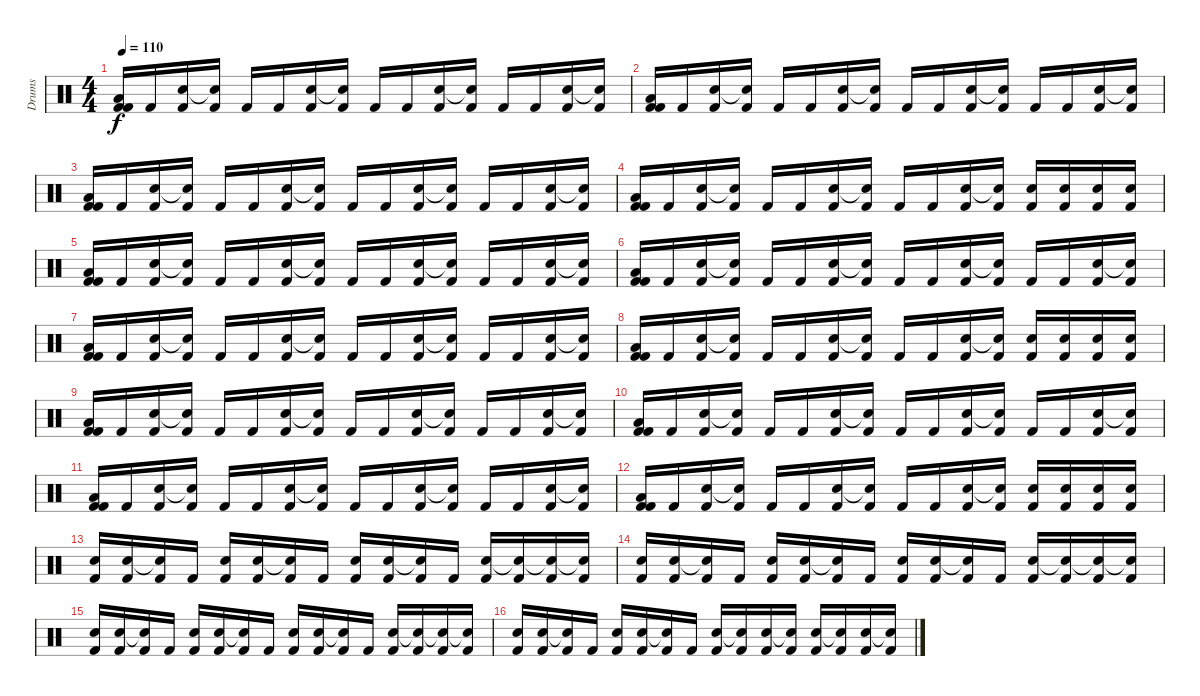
\track ("Drums" "Drums") {instrument percussion}
\staff {score}
\articulation defaults
\ts (4 4)
\tempo 110
\clef neutral
\ks c
("Kick (hit) 2" "Low Floor Tom (hit)" "Kick (hit) 2").16{dy f} "Kick (hit) 2".16 ("Kick (hit) 2" "Electric Snare (hit)").16 ("Kick (hit) 2" "Snare (hit)"{t}).16 "Kick (hit) 2".16 "Kick (hit) 2".16 ("Kick (hit) 2" "Electric Snare (hit)").16 ("Kick (hit) 2" "Snare (hit)"{t}).16 "Kick (hit) 2".16 "Kick (hit) 2".16 ("Kick (hit) 2" "Electric Snare (hit)").16 ("Kick (hit) 2" "Snare (hit)"{t}).16 "Kick (hit) 2".16 "Kick (hit) 2".16 ("Kick (hit) 2" "Electric Snare (hit)").16 ("Kick (hit) 2" "Snare (hit)"{t}).16 |
("Kick (hit) 2" "Low Floor Tom (hit)" "Kick (hit) 2").16 "Kick (hit) 2".16 ("Kick (hit) 2" "Electric Snare (hit)").16 ("Kick (hit) 2" "Snare (hit)"{t}).16 "Kick (hit) 2".16 "Kick (hit) 2".16 ("Kick (hit) 2" "Electric Snare (hit)").16 ("Kick (hit) 2" "Snare (hit)"{t}).16 "Kick (hit) 2".16 "Kick (hit) 2".16 ("Kick (hit) 2" "Electric Snare (hit)").16 ("Kick (hit) 2" "Snare (hit)"{t}).16 "Kick (hit) 2".16 "Kick (hit) 2".16 ("Kick (hit) 2" "Electric Snare (hit)").16 ("Kick (hit) 2" "Electric Snare (hit)"{t}).16 |
("Kick (hit) 2" "Low Floor Tom (hit)" "Kick (hit) 2").16 "Kick (hit) 2".16 ("Kick (hit) 2" "Electric Snare (hit)").16 ("Kick (hit) 2" "Snare (hit)"{t}).16 "Kick (hit) 2".16 "Kick (hit) 2".16 ("Kick (hit) 2" "Electric Snare (hit)").16 ("Kick (hit) 2" "Snare (hit)"{t}).16 "Kick (hit) 2".16 "Kick (hit) 2".16 ("Kick (hit) 2" "Electric Snare (hit)").16 ("Kick (hit) 2" "Snare (hit)"{t}).16 "Kick (hit) 2".16 "Kick (hit) 2".16 ("Kick (hit) 2" "Electric Snare (hit)").16 ("Kick (hit) 2" "Snare (hit)"{t}).16 |
("Kick (hit) 2" "Low Floor Tom (hit)" "Kick (hit) 2").16 "Kick (hit) 2".16 ("Kick (hit) 2" "Electric Snare (hit)").16 ("Kick (hit) 2" "Snare (hit)"{t}).16 "Kick (hit) 2".16 "Kick (hit) 2".16 ("Kick (hit) 2" "Electric Snare (hit)").16 ("Kick (hit) 2" "Snare (hit)"{t}).16 "Kick (hit) 2".16 "Kick (hit) 2".16 ("Kick (hit) 2" "Electric Snare (hit)").16 ("Kick (hit) 2" "Snare (hit)"{t}).16 ("Kick (hit) 2" "Electric Snare (hit)").16 ("Kick (hit) 2" "Electric Snare (hit)").16 ("Kick (hit) 2" "Electric Snare (hit)").16 ("Kick (hit) 2" "Electric Snare (hit)").16 |
("Kick (hit) 2" "Low Floor Tom (hit)" "Kick (hit) 2").16 "Kick (hit) 2".16 ("Kick (hit) 2" "Electric Snare (hit)").16 ("Kick (hit) 2" "Snare (hit)"{t}).16 "Kick (hit) 2".16 "Kick (hit) 2".16 ("Kick (hit) 2" "Electric Snare (hit)").16 ("Kick (hit) 2" "Snare (hit)"{t}).16 "Kick (hit) 2".16 "Kick (hit) 2".16 ("Kick (hit) 2" "Electric Snare (hit)").16 ("Kick (hit) 2" "Snare (hit)"{t}).16 "Kick (hit) 2".16 "Kick (hit) 2".16 ("Kick (hit) 2" "Electric Snare (hit)").16 ("Kick (hit) 2" "Snare (hit)"{t}).16 |
("Kick (hit) 2" "Low Floor Tom (hit)" "Kick (hit) 2").16 "Kick (hit) 2".16 ("Kick (hit) 2" "Electric Snare (hit)").16 ("Kick (hit) 2" "Snare (hit)"{t}).16 "Kick (hit) 2".16 "Kick (hit) 2".16 ("Kick (hit) 2" "Electric Snare (hit)").16 ("Kick (hit) 2" "Snare (hit)"{t}).16 "Kick (hit) 2".16 "Kick (hit) 2".16 ("Kick (hit) 2" "Electric Snare (hit)").16 ("Kick (hit) 2" "Snare (hit)"{t}).16 "Kick (hit) 2".16 "Kick (hit) 2".16 ("Kick (hit) 2" "Electric Snare (hit)").16 ("Kick (hit) 2" "Electric Snare (hit)"{t}).16 |
("Kick (hit) 2" "Low Floor Tom (hit)" "Kick (hit) 2").16 "Kick (hit) 2".16 ("Kick (hit) 2" "Electric Snare (hit)").16 ("Kick (hit) 2" "Snare (hit)"{t}).16 "Kick (hit) 2".16 "Kick (hit) 2".16 ("Kick (hit) 2" "Electric Snare (hit)").16 ("Kick (hit) 2" "Snare (hit)"{t}).16 "Kick (hit) 2".16 "Kick (hit) 2".16 ("Kick (hit) 2" "Electric Snare (hit)").16 ("Kick (hit) 2" "Snare (hit)"{t}).16 "Kick (hit) 2".16 "Kick (hit) 2".16 ("Kick (hit) 2" "Electric Snare (hit)").16 ("Kick (hit) 2" "Snare (hit)"{t}).16 |
("Kick (hit) 2" "Low Floor Tom (hit)" "Kick (hit) 2").16 "Kick (hit) 2".16 ("Kick (hit) 2" "Electric Snare (hit)").16 ("Kick (hit) 2" "Snare (hit)"{t}).16 "Kick (hit) 2".16 "Kick (hit) 2".16 ("Kick (hit) 2" "Electric Snare (hit)").16 ("Kick (hit) 2" "Snare (hit)"{t}).16 "Kick (hit) 2".16 "Kick (hit) 2".16 ("Kick (hit) 2" "Electric Snare (hit)").16 ("Kick (hit) 2" "Snare (hit)"{t}).16 ("Kick (hit) 2" "Electric Snare (hit)").16 ("Kick (hit) 2" "Electric Snare (hit)").16 ("Kick (hit) 2" "Electric Snare (hit)").16 ("Kick (hit) 2" "Electric Snare (hit)").16 |
("Kick (hit) 2" "Low Floor Tom (hit)" "Kick (hit) 2").16 "Kick (hit) 2".16 ("Kick (hit) 2" "Electric Snare (hit)").16 ("Kick (hit) 2" "Snare (hit)"{t}).16 "Kick (hit) 2".16 "Kick (hit) 2".16 ("Kick (hit) 2" "Electric Snare (hit)").16 ("Kick (hit) 2" "Snare (hit)"{t}).16 "Kick (hit) 2".16 "Kick (hit) 2".16 ("Kick (hit) 2" "Electric Snare (hit)").16 ("Kick (hit) 2" "Snare (hit)"{t}).16 "Kick (hit) 2".16 "Kick (hit) 2".16 ("Kick (hit) 2" "Electric Snare (hit)").16 ("Kick (hit) 2" "Snare (hit)"{t}).16 |
("Kick (hit) 2" "Low Floor Tom (hit)" "Kick (hit) 2").16 "Kick (hit) 2".16 ("Kick (hit) 2" "Electric Snare (hit)").16 ("Kick (hit) 2" "Snare (hit)"{t}).16 "Kick (hit) 2".16 "Kick (hit) 2".16 ("Kick (hit) 2" "Electric Snare (hit)").16 ("Kick (hit) 2" "Snare (hit)"{t}).16 "Kick (hit) 2".16 "Kick (hit) 2".16 ("Kick (hit) 2" "Electric Snare (hit)").16 ("Kick (hit) 2" "Snare (hit)"{t}).16 "Kick (hit) 2".16 "Kick (hit) 2".16 ("Kick (hit) 2" "Electric Snare (hit)").16 ("Kick (hit) 2" "Electric Snare (hit)"{t}).16 |
("Kick (hit) 2" "Low Floor Tom (hit)" "Kick (hit) 2").16 "Kick (hit) 2".16 ("Kick (hit) 2" "Electric Snare (hit)").16 ("Kick (hit) 2" "Snare (hit)"{t}).16 "Kick (hit) 2".16 "Kick (hit) 2".16 ("Kick (hit) 2" "Electric Snare (hit)").16 ("Kick (hit) 2" "Snare (hit)"{t}).16 "Kick (hit) 2".16 "Kick (hit) 2".16 ("Kick (hit) 2" "Electric Snare (hit)").16 ("Kick (hit) 2" "Snare (hit)"{t}).16 "Kick (hit) 2".16 "Kick (hit) 2".16 ("Kick (hit) 2" "Electric Snare (hit)").16 ("Kick (hit) 2" "Snare (hit)"{t}).16 |
("Kick (hit) 2" "Low Floor Tom (hit)" "Kick (hit) 2").16 "Kick (hit) 2".16 ("Kick (hit) 2" "Electric Snare (hit)").16 ("Kick (hit) 2" "Snare (hit)"{t}).16 "Kick (hit) 2".16 "Kick (hit) 2".16 ("Kick (hit) 2" "Electric Snare (hit)").16 ("Kick (hit) 2" "Snare (hit)"{t}).16 "Kick (hit) 2".16 "Kick (hit) 2".16 ("Kick (hit) 2" "Electric Snare (hit)").16 ("Kick (hit) 2" "Snare (hit)"{t}).16 ("Kick (hit) 2" "Electric Snare (hit)").16 ("Kick (hit) 2" "Electric Snare (hit)").16 ("Kick (hit) 2" "Electric Snare (hit)").16 ("Kick (hit) 2" "Electric Snare (hit)").16 |
("Kick (hit) 2" "Electric Snare (hit)").16 ("Kick (hit) 2" "Electric Snare (hit)").16 ("Kick (hit) 2" "Snare (hit)"{t}).16 "Kick (hit) 2".16 ("Kick (hit) 2" "Electric Snare (hit)").16 ("Kick (hit) 2" "Electric Snare (hit)").16 ("Kick (hit) 2" "Snare (hit)"{t}).16 "Kick (hit) 2".16 ("Kick (hit) 2" "Electric Snare (hit)").16 ("Kick (hit) 2" "Electric Snare (hit)").16 ("Kick (hit) 2" "Snare (hit)"{t}).16 "Kick (hit) 2".16 ("Kick (hit) 2" "Electric Snare (hit)").16 ("Kick (hit) 2" "Snare (hit)"{t}).16 ("Kick (hit) 2" "Snare (hit)"{t}).16 ("Kick (hit) 2" "Snare (hit)"{t}).16 |
("Kick (hit) 2" "Electric Snare (hit)").16 ("Kick (hit) 2" "Electric Snare (hit)").16 ("Kick (hit) 2" "Snare (hit)"{t}).16 "Kick (hit) 2".16 ("Kick (hit) 2" "Electric Snare (hit)").16 ("Kick (hit) 2" "Electric Snare (hit)").16 ("Kick (hit) 2" "Snare (hit)"{t}).16 "Kick (hit) 2".16 ("Kick (hit) 2" "Electric Snare (hit)").16 ("Kick (hit) 2" "Electric Snare (hit)").16 ("Kick (hit) 2" "Snare (hit)"{t}).16 "Kick (hit) 2".16 ("Kick (hit) 2" "Electric Snare (hit)").16 ("Kick (hit) 2" "Snare (hit)"{t}).16 ("Kick (hit) 2" "Snare (hit)"{t}).16 ("Kick (hit) 2" "Snare (hit)"{t}).16 |
("Kick (hit) 2" "Electric Snare (hit)").16 ("Kick (hit) 2" "Electric Snare (hit)").16 ("Kick (hit) 2" "Snare (hit)"{t}).16 "Kick (hit) 2".16 ("Kick (hit) 2" "Electric Snare (hit)").16 ("Kick (hit) 2" "Electric Snare (hit)").16 ("Kick (hit) 2" "Snare (hit)"{t}).16 "Kick (hit) 2".16 ("Kick (hit) 2" "Electric Snare (hit)").16 ("Kick (hit) 2" "Electric Snare (hit)").16 ("Kick (hit) 2" "Snare (hit)"{t}).16 "Kick (hit) 2".16 ("Kick (hit) 2" "Electric Snare (hit)").16 ("Kick (hit) 2" "Snare (hit)"{t}).16 ("Kick (hit) 2" "Snare (hit)"{t}).16 ("Kick (hit) 2" "Snare (hit)"{t}).16 |
("Kick (hit) 2" "Electric Snare (hit)").16 ("Kick (hit) 2" "Electric Snare (hit)").16 ("Kick (hit) 2" "Snare (hit)"{t}).16 "Kick (hit) 2".16 ("Kick (hit) 2" "Electric Snare (hit)").16 ("Kick (hit) 2" "Electric Snare (hit)").16 ("Kick (hit) 2" "Snare (hit)"{t}).16 "Kick (hit) 2".16 ("Kick (hit) 2" "Electric Snare (hit)").16 ("Kick (hit) 2" "Electric Snare (hit)"{t}).16 ("Kick (hit) 2" "Electric Snare (hit)").16 ("Kick (hit) 2" "Snare (hit)"{t}).16 ("Kick (hit) 2" "Electric Snare (hit)").16 ("Kick (hit) 2" "Snare (hit)"{t}).16 ("Kick (hit) 2" "Electric Snare (hit)").16 ("Kick (hit) 2" "Snare (hit)"{t}).16
